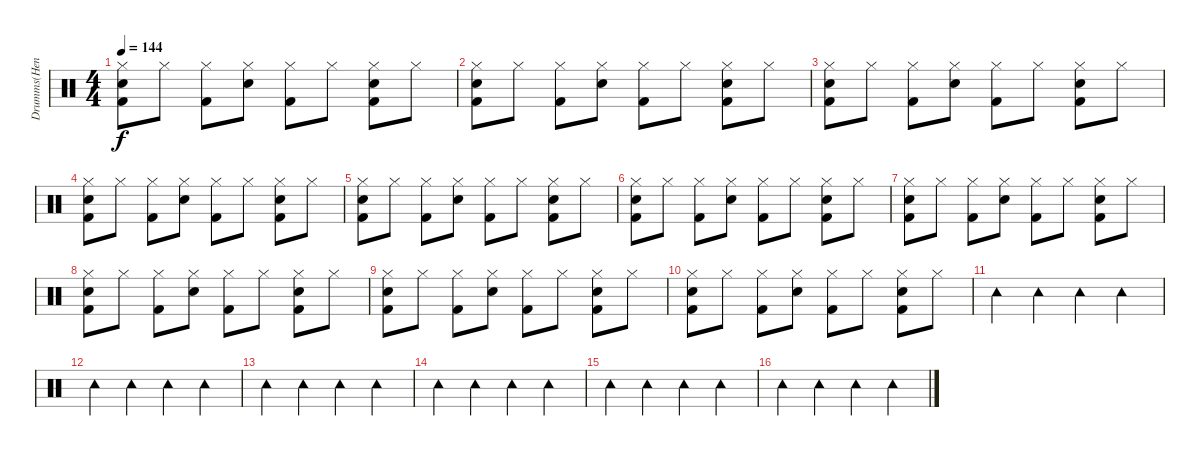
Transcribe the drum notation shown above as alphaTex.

\track ("Drumms(Henrik)" "Drumms(Hen") {instrument percussion}
\staff {score}
\articulation defaults
\ts (4 4)
\tempo 144
\clef neutral
\ks c
("Hi-Hat (closed)" "Kick (hit) 2" "Electric Snare (hit)").8{dy f} "Hi-Hat (closed)".8 ("Hi-Hat (closed)" "Kick (hit) 2").8 ("Hi-Hat (closed)" "Electric Snare (hit)").8 ("Hi-Hat (closed)" "Kick (hit) 2").8 "Hi-Hat (closed)".8 ("Hi-Hat (closed)" "Kick (hit) 2" "Electric Snare (hit)").8 "Hi-Hat (closed)".8 |
("Hi-Hat (closed)" "Kick (hit) 2" "Electric Snare (hit)").8 "Hi-Hat (closed)".8 ("Hi-Hat (closed)" "Kick (hit) 2").8 ("Hi-Hat (closed)" "Electric Snare (hit)").8 ("Hi-Hat (closed)" "Kick (hit) 2").8 "Hi-Hat (closed)".8 ("Hi-Hat (closed)" "Kick (hit) 2" "Electric Snare (hit)").8 "Hi-Hat (closed)".8 |
("Hi-Hat (closed)" "Kick (hit) 2" "Electric Snare (hit)").8 "Hi-Hat (closed)".8 ("Hi-Hat (closed)" "Kick (hit) 2").8 ("Hi-Hat (closed)" "Electric Snare (hit)").8 ("Hi-Hat (closed)" "Kick (hit) 2").8 "Hi-Hat (closed)".8 ("Hi-Hat (closed)" "Kick (hit) 2" "Electric Snare (hit)").8 "Hi-Hat (closed)".8 |
("Hi-Hat (closed)" "Kick (hit) 2" "Electric Snare (hit)").8 "Hi-Hat (closed)".8 ("Hi-Hat (closed)" "Kick (hit) 2").8 ("Hi-Hat (closed)" "Electric Snare (hit)").8 ("Hi-Hat (closed)" "Kick (hit) 2").8 "Hi-Hat (closed)".8 ("Hi-Hat (closed)" "Kick (hit) 2" "Electric Snare (hit)").8 "Hi-Hat (closed)".8 |
("Hi-Hat (closed)" "Kick (hit) 2" "Electric Snare (hit)").8 "Hi-Hat (closed)".8 ("Hi-Hat (closed)" "Kick (hit) 2").8 ("Hi-Hat (closed)" "Electric Snare (hit)").8 ("Hi-Hat (closed)" "Kick (hit) 2").8 "Hi-Hat (closed)".8 ("Hi-Hat (closed)" "Kick (hit) 2" "Electric Snare (hit)").8 "Hi-Hat (closed)".8 |
("Hi-Hat (closed)" "Kick (hit) 2" "Electric Snare (hit)").8 "Hi-Hat (closed)".8 ("Hi-Hat (closed)" "Kick (hit) 2").8 ("Hi-Hat (closed)" "Electric Snare (hit)").8 ("Hi-Hat (closed)" "Kick (hit) 2").8 "Hi-Hat (closed)".8 ("Hi-Hat (closed)" "Kick (hit) 2" "Electric Snare (hit)").8 "Hi-Hat (closed)".8 |
("Hi-Hat (closed)" "Kick (hit) 2" "Electric Snare (hit)").8 "Hi-Hat (closed)".8 ("Hi-Hat (closed)" "Kick (hit) 2").8 ("Hi-Hat (closed)" "Electric Snare (hit)").8 ("Hi-Hat (closed)" "Kick (hit) 2").8 "Hi-Hat (closed)".8 ("Hi-Hat (closed)" "Kick (hit) 2" "Electric Snare (hit)").8 "Hi-Hat (closed)".8 |
("Hi-Hat (closed)" "Kick (hit) 2" "Electric Snare (hit)").8 "Hi-Hat (closed)".8 ("Hi-Hat (closed)" "Kick (hit) 2").8 ("Hi-Hat (closed)" "Electric Snare (hit)").8 ("Hi-Hat (closed)" "Kick (hit) 2").8 "Hi-Hat (closed)".8 ("Hi-Hat (closed)" "Kick (hit) 2" "Electric Snare (hit)").8 "Hi-Hat (closed)".8 |
("Hi-Hat (closed)" "Kick (hit) 2" "Electric Snare (hit)").8 "Hi-Hat (closed)".8 ("Hi-Hat (closed)" "Kick (hit) 2").8 ("Hi-Hat (closed)" "Electric Snare (hit)").8 ("Hi-Hat (closed)" "Kick (hit) 2").8 "Hi-Hat (closed)".8 ("Hi-Hat (closed)" "Kick (hit) 2" "Electric Snare (hit)").8 "Hi-Hat (closed)".8 |
("Hi-Hat (closed)" "Kick (hit) 2" "Electric Snare (hit)").8 "Hi-Hat (closed)".8 ("Hi-Hat (closed)" "Kick (hit) 2").8 ("Hi-Hat (closed)" "Electric Snare (hit)").8 ("Hi-Hat (closed)" "Kick (hit) 2").8 "Hi-Hat (closed)".8 ("Hi-Hat (closed)" "Kick (hit) 2" "Electric Snare (hit)").8 "Hi-Hat (closed)".8 |
"Tambourine (hit)".4 "Tambourine (hit)".4 "Tambourine (hit)".4 "Tambourine (hit)".4 |
"Tambourine (hit)".4 "Tambourine (hit)".4 "Tambourine (hit)".4 "Tambourine (hit)".4 |
"Tambourine (hit)".4 "Tambourine (hit)".4 "Tambourine (hit)".4 "Tambourine (hit)".4 |
"Tambourine (hit)".4 "Tambourine (hit)".4 "Tambourine (hit)".4 "Tambourine (hit)".4 |
"Tambourine (hit)".4 "Tambourine (hit)".4 "Tambourine (hit)".4 "Tambourine (hit)".4 |
"Tambourine (hit)".4 "Tambourine (hit)".4 "Tambourine (hit)".4 "Tambourine (hit)".4
